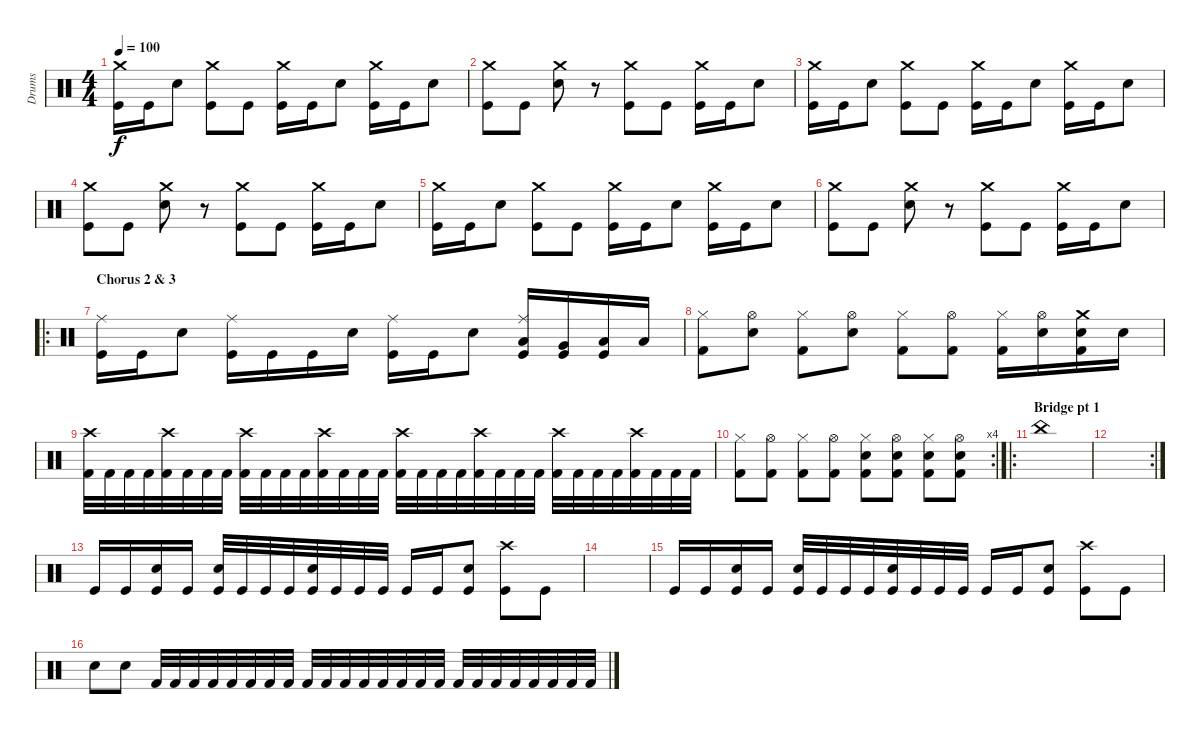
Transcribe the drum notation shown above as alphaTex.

\track ("Drums" "Drums") {instrument percussion}
\staff {score}
\articulation defaults
\ts (4 4)
\tempo 100
\clef neutral
\ks c
("Crash medium (hit)" "Kick (hit)").16{dy f} "Kick (hit)".16 "Electric Snare (hit)".8 ("Crash medium (hit)" "Kick (hit)").8 "Kick (hit)".8 ("Crash medium (hit)" "Kick (hit)").16 "Kick (hit)".16 "Electric Snare (hit)".8 ("Crash medium (hit)" "Kick (hit)").16 "Kick (hit)".16 "Electric Snare (hit)".8 |
("Crash medium (hit)" "Kick (hit)").8 "Kick (hit)".8 ("Crash medium (hit)" "Electric Snare (hit)").8 r.8 ("Crash medium (hit)" "Kick (hit)").8 "Kick (hit)".8 ("Crash medium (hit)" "Kick (hit)").16 "Kick (hit)".16 "Electric Snare (hit)".8 |
("Crash medium (hit)" "Kick (hit)").16 "Kick (hit)".16 "Electric Snare (hit)".8 ("Crash medium (hit)" "Kick (hit)").8 "Kick (hit)".8 ("Crash medium (hit)" "Kick (hit)").16 "Kick (hit)".16 "Electric Snare (hit)".8 ("Crash medium (hit)" "Kick (hit)").16 "Kick (hit)".16 "Electric Snare (hit)".8 |
("Crash medium (hit)" "Kick (hit)").8 "Kick (hit)".8 ("Crash medium (hit)" "Electric Snare (hit)").8 r.8 ("Crash medium (hit)" "Kick (hit)").8 "Kick (hit)".8 ("Crash medium (hit)" "Kick (hit)").16 "Kick (hit)".16 "Electric Snare (hit)".8 |
("Crash medium (hit)" "Kick (hit)").16 "Kick (hit)".16 "Electric Snare (hit)".8 ("Crash medium (hit)" "Kick (hit)").8 "Kick (hit)".8 ("Crash medium (hit)" "Kick (hit)").16 "Kick (hit)".16 "Electric Snare (hit)".8 ("Crash medium (hit)" "Kick (hit)").16 "Kick (hit)".16 "Electric Snare (hit)".8 |
("Crash medium (hit)" "Kick (hit)").8 "Kick (hit)".8 ("Crash medium (hit)" "Electric Snare (hit)").8 r.8 ("Crash medium (hit)" "Kick (hit)").8 "Kick (hit)".8 ("Crash medium (hit)" "Kick (hit)").16 "Kick (hit)".16 "Electric Snare (hit)".8 |
\ro
\section ("" "Chorus 2 & 3")
("Ride (middle)" "Kick (hit)").16 "Kick (hit)".16 "Electric Snare (hit)".8 ("Ride (middle)" "Kick (hit)").16 "Kick (hit)".16 "Kick (hit)".16 "Electric Snare (hit)".16 ("Ride (middle)" "Kick (hit)").16 "Kick (hit)".16 "Electric Snare (hit)".8 ("Ride (middle)" "Low Tom (hit)" "Kick (hit)").16 ("Very Low Tom (hit)" "Kick (hit)").16 ("Low Floor Tom (hit)" "Kick (hit)").16 "Low Floor Tom (hit)".16 |
("Hi-Hat (closed)" "Kick (hit) 2").8 ("Hi-Hat (open)" "Electric Snare (hit)").8 ("Hi-Hat (closed)" "Kick (hit) 2").8 ("Hi-Hat (open)" "Electric Snare (hit)").8 ("Hi-Hat (closed)" "Kick (hit) 2").8 ("Hi-Hat (open)" "Kick (hit) 2").8 ("Hi-Hat (closed)" "Kick (hit) 2").16 ("Hi-Hat (open)" "Electric Snare (hit)").16 ("Crash medium (hit)" "Electric Snare (hit)" "Kick (hit) 2").16 "Electric Snare (hit)".16 |
("Crash high (hit)" "Kick (hit) 2").32 "Kick (hit) 2".32 "Kick (hit) 2".32 "Kick (hit) 2".32 ("Crash high (hit)" "Kick (hit) 2").32 "Kick (hit) 2".32 "Kick (hit) 2".32 "Kick (hit) 2".32 ("Crash high (hit)" "Kick (hit) 2").32 "Kick (hit) 2".32 "Kick (hit) 2".32 "Kick (hit) 2".32 ("Crash high (hit)" "Kick (hit) 2").32 "Kick (hit) 2".32 "Kick (hit) 2".32 "Kick (hit) 2".32 ("Crash high (hit)" "Kick (hit) 2").32 "Kick (hit) 2".32 "Kick (hit) 2".32 "Kick (hit) 2".32 ("Crash high (hit)" "Kick (hit) 2").32 "Kick (hit) 2".32 "Kick (hit) 2".32 "Kick (hit) 2".32 ("Crash high (hit)" "Kick (hit) 2").32 "Kick (hit) 2".32 "Kick (hit) 2".32 "Kick (hit) 2".32 ("Crash high (hit)" "Kick (hit) 2").32 "Kick (hit) 2".32 "Kick (hit) 2".32 "Kick (hit) 2".32 |
\rc 4
("Hi-Hat (closed)" "Kick (hit) 2").8 ("Hi-Hat (open)" "Kick (hit) 2").8 ("Hi-Hat (closed)" "Kick (hit) 2").8 ("Hi-Hat (open)" "Kick (hit) 2").8 ("Hi-Hat (closed)" "Electric Snare (hit)" "Kick (hit) 2").8 ("Hi-Hat (open)" "Electric Snare (hit)" "Kick (hit) 2").8 ("Hi-Hat (closed)" "Electric Snare (hit)" "Kick (hit) 2").8 ("Hi-Hat (open)" "Electric Snare (hit)" "Kick (hit) 2").8 |
\ro
\section ("" "Bridge pt 1")
"China (hit)".1 |
\rc 2
|
"Kick (hit)".16 "Kick (hit)".16 ("Electric Snare (hit)" "Kick (hit)").16 "Kick (hit)".16 ("Electric Snare (hit)" "Kick (hit)").32 "Kick (hit)".32 "Kick (hit)".32 "Kick (hit)".32 ("Electric Snare (hit)" "Kick (hit)").32 "Kick (hit)".32 "Kick (hit)".32 "Kick (hit)".32 "Kick (hit)".16 "Kick (hit)".16 ("Electric Snare (hit)" "Kick (hit)").8 ("Crash high (hit)" "Kick (hit)").8 "Kick (hit)".8 |
|
"Kick (hit)".16 "Kick (hit)".16 ("Electric Snare (hit)" "Kick (hit)").16 "Kick (hit)".16 ("Electric Snare (hit)" "Kick (hit)").32 "Kick (hit)".32 "Kick (hit)".32 "Kick (hit)".32 ("Electric Snare (hit)" "Kick (hit)").32 "Kick (hit)".32 "Kick (hit)".32 "Kick (hit)".32 "Kick (hit)".16 "Kick (hit)".16 ("Electric Snare (hit)" "Kick (hit)").8 ("Crash high (hit)" "Kick (hit)").8 "Kick (hit)".8 |
"Electric Snare (hit)".8 "Electric Snare (hit)".8 "Kick (hit) 2".32 "Kick (hit) 2".32 "Kick (hit) 2".32 "Kick (hit) 2".32 "Kick (hit) 2".32 "Kick (hit) 2".32 "Kick (hit) 2".32 "Kick (hit) 2".32 "Kick (hit) 2".32 "Kick (hit) 2".32 "Kick (hit) 2".32 "Kick (hit) 2".32 "Kick (hit) 2".32 "Kick (hit) 2".32 "Kick (hit) 2".32 "Kick (hit) 2".32 "Kick (hit) 2".32 "Kick (hit) 2".32 "Kick (hit) 2".32 "Kick (hit) 2".32 "Kick (hit) 2".32 "Kick (hit) 2".32 "Kick (hit) 2".32 "Kick (hit) 2".32
